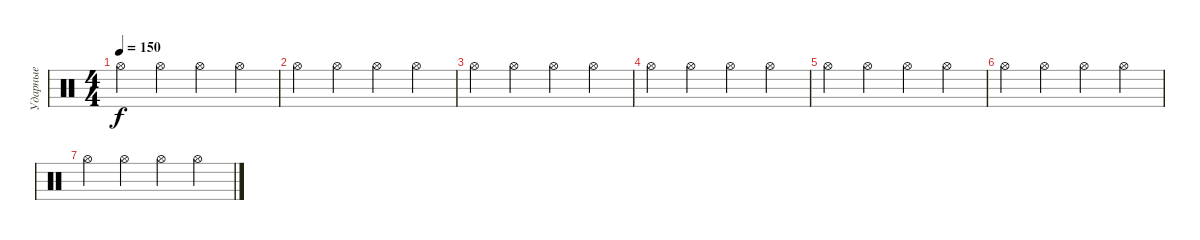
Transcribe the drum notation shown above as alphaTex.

\track ("Ударные" "Ударные") {instrument percussion}
\staff {score}
\articulation defaults
\ts (4 4)
\tempo 150
\clef neutral
\ks c "Hi-Hat (open)".4{dy f} "Hi-Hat (open)".4 "Hi-Hat (open)".4 "Hi-Hat (open)".4
|
"Hi-Hat (open)".4 "Hi-Hat (open)".4 "Hi-Hat (open)".4 "Hi-Hat (open)".4 |
"Hi-Hat (open)".4 "Hi-Hat (open)".4 "Hi-Hat (open)".4 "Hi-Hat (open)".4 |
"Hi-Hat (open)".4 "Hi-Hat (open)".4 "Hi-Hat (open)".4 "Hi-Hat (open)".4 |
"Hi-Hat (open)".4 "Hi-Hat (open)".4 "Hi-Hat (open)".4 "Hi-Hat (open)".4 |
"Hi-Hat (open)".4 "Hi-Hat (open)".4 "Hi-Hat (open)".4 "Hi-Hat (open)".4 |
"Hi-Hat (open)".4 "Hi-Hat (open)".4 "Hi-Hat (open)".4 "Hi-Hat (open)".4
